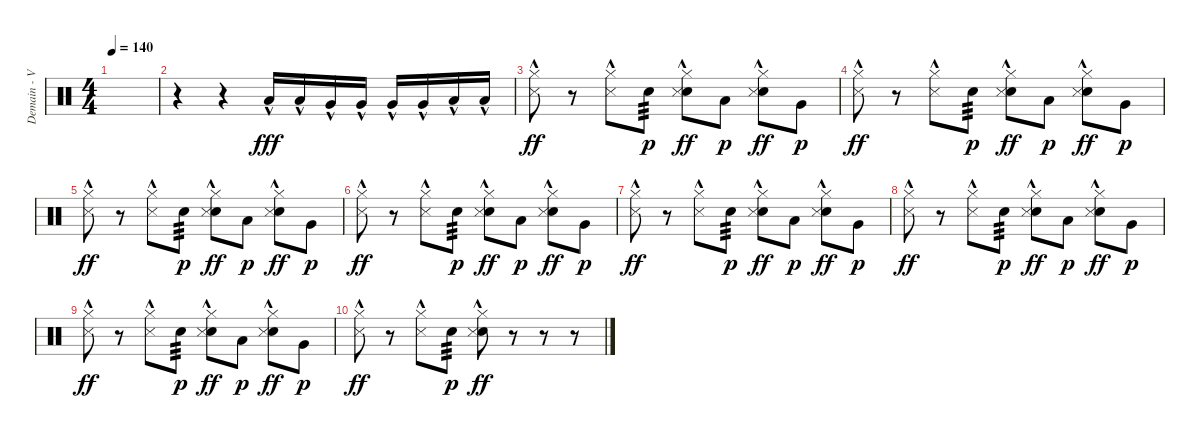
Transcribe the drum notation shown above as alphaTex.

\track ("Demain - Various Perc." "Demain - V") {instrument percussion}
\staff {score}
\articulation defaults
\ts (4 4)
\tempo 140
\clef neutral
\ks c
|
r.4 r.4 "Low Tom (hit)"{hac}.16{dy fff} "Low Tom (hit)"{hac}.16 "Very Low Tom (hit)"{hac}.16 "Very Low Tom (hit)"{hac}.16 "Very Low Tom (hit)"{hac}.16 "Very Low Tom (hit)"{hac}.16 "Low Floor Tom (hit)"{hac}.16 "Low Floor Tom (hit)"{hac}.16 |
("Hi-Hat (closed)" "Snare (side stick) 3"{hac}).8{dy ff} r.8 ("Hi-Hat (closed)" "Snare (side stick) 3"{hac}).8 "Electric Snare (hit)".8{tp 3 dy p} ("Hi-Hat (closed)" "Electric Snare (hit)" "Snare (side stick) 3"{hac}).8{dy ff} "Low Tom (hit)".8{dy p} ("Hi-Hat (closed)" "Electric Snare (hit)" "Snare (side stick) 3"{hac}).8{dy ff} "Very Low Tom (hit)".8{dy p} |
("Hi-Hat (closed)" "Snare (side stick) 3"{hac}).8{dy ff} r.8 ("Hi-Hat (closed)" "Snare (side stick) 3"{hac}).8 "Electric Snare (hit)".8{tp 3 dy p} ("Hi-Hat (closed)" "Electric Snare (hit)" "Snare (side stick) 3"{hac}).8{dy ff} "Low Tom (hit)".8{dy p} ("Hi-Hat (closed)" "Electric Snare (hit)" "Snare (side stick) 3"{hac}).8{dy ff} "Very Low Tom (hit)".8{dy p} |
("Hi-Hat (closed)" "Snare (side stick) 3"{hac}).8{dy ff} r.8 ("Hi-Hat (closed)" "Snare (side stick) 3"{hac}).8 "Electric Snare (hit)".8{tp 3 dy p} ("Hi-Hat (closed)" "Electric Snare (hit)" "Snare (side stick) 3"{hac}).8{dy ff} "Low Tom (hit)".8{dy p} ("Hi-Hat (closed)" "Electric Snare (hit)" "Snare (side stick) 3"{hac}).8{dy ff} "Very Low Tom (hit)".8{dy p} |
("Hi-Hat (closed)" "Snare (side stick) 3"{hac}).8{dy ff} r.8 ("Hi-Hat (closed)" "Snare (side stick) 3"{hac}).8 "Electric Snare (hit)".8{tp 3 dy p} ("Hi-Hat (closed)" "Electric Snare (hit)" "Snare (side stick) 3"{hac}).8{dy ff} "Low Tom (hit)".8{dy p} ("Hi-Hat (closed)" "Electric Snare (hit)" "Snare (side stick) 3"{hac}).8{dy ff} "Very Low Tom (hit)".8{dy p} |
("Hi-Hat (closed)" "Snare (side stick) 3"{hac}).8{dy ff} r.8 ("Hi-Hat (closed)" "Snare (side stick) 3"{hac}).8 "Electric Snare (hit)".8{tp 3 dy p} ("Hi-Hat (closed)" "Electric Snare (hit)" "Snare (side stick) 3"{hac}).8{dy ff} "Low Tom (hit)".8{dy p} ("Hi-Hat (closed)" "Electric Snare (hit)" "Snare (side stick) 3"{hac}).8{dy ff} "Very Low Tom (hit)".8{dy p} |
("Hi-Hat (closed)" "Snare (side stick) 3"{hac}).8{dy ff} r.8 ("Hi-Hat (closed)" "Snare (side stick) 3"{hac}).8 "Electric Snare (hit)".8{tp 3 dy p} ("Hi-Hat (closed)" "Electric Snare (hit)" "Snare (side stick) 3"{hac}).8{dy ff} "Low Tom (hit)".8{dy p} ("Hi-Hat (closed)" "Electric Snare (hit)" "Snare (side stick) 3"{hac}).8{dy ff} "Very Low Tom (hit)".8{dy p} |
("Hi-Hat (closed)" "Snare (side stick) 3"{hac}).8{dy ff} r.8 ("Hi-Hat (closed)" "Snare (side stick) 3"{hac}).8 "Electric Snare (hit)".8{tp 3 dy p} ("Hi-Hat (closed)" "Electric Snare (hit)" "Snare (side stick) 3"{hac}).8{dy ff} "Low Tom (hit)".8{dy p} ("Hi-Hat (closed)" "Electric Snare (hit)" "Snare (side stick) 3"{hac}).8{dy ff} "Very Low Tom (hit)".8{dy p} |
("Hi-Hat (closed)" "Snare (side stick) 3"{hac}).8{dy ff} r.8 ("Hi-Hat (closed)" "Snare (side stick) 3"{hac}).8 "Electric Snare (hit)".8{tp 3 dy p} ("Hi-Hat (closed)" "Electric Snare (hit)" "Snare (side stick) 3"{hac}).8{dy ff} r.8 r.8 r.8
